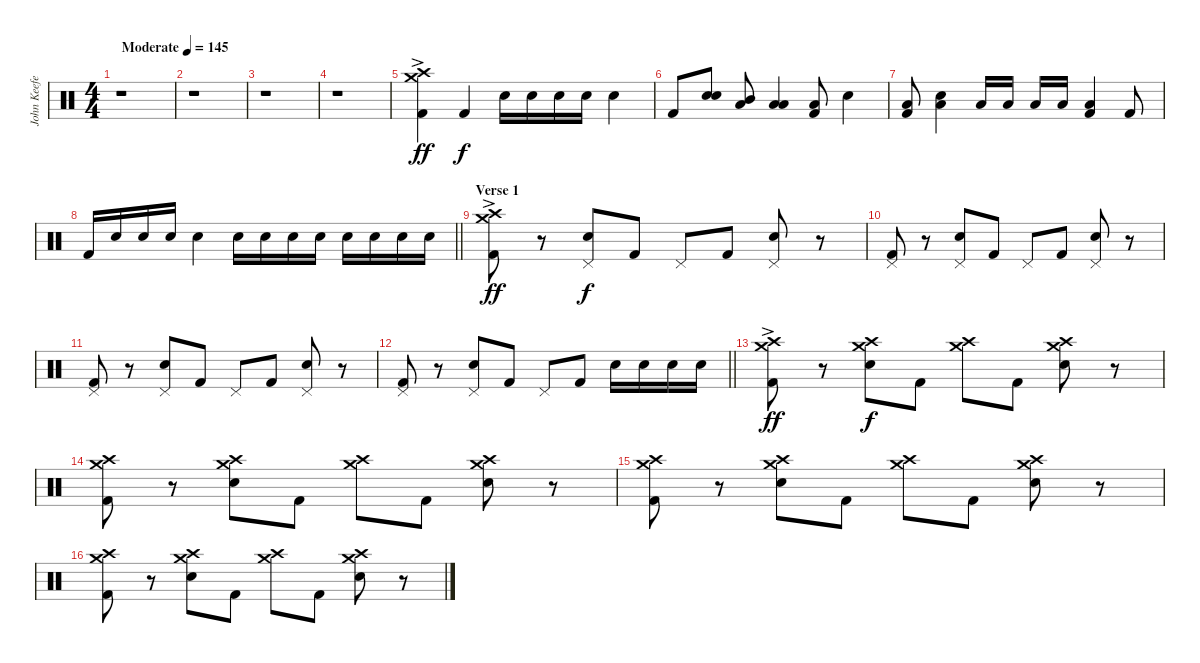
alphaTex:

\track ("John Keefe (Percussion)" "John Keefe") {instrument percussion}
\staff {score}
\articulation defaults
\ts (4 4)
\tempo (145 "Moderate")
\clef neutral
\ks c
r.1{dy ff} |
r.1 |
r.1 |
r.1 |
("Crash high (hit)"{ac} "Crash medium (hit)"{ac} "Kick (hit) 2"{ac}).4 "Kick (hit) 2".4{dy f} "Electric Snare (hit)".16 "Electric Snare (hit)".16 "Electric Snare (hit)".16 "Electric Snare (hit)".16 "Electric Snare (hit)".4 |
"Kick (hit) 2".8 ("Electric Snare (hit)" "Electric Snare (hit)").8 ("Low Tom (hit)" "Mid Tom (hit)").8 ("Low Tom (hit)" "Low Floor Tom (hit)").4 ("Low Floor Tom (hit)" "Kick (hit) 2").8 "Electric Snare (hit)".4 |
("Low Floor Tom (hit)" "Kick (hit) 2").8 ("Low Floor Tom (hit)" "Electric Snare (hit)").4 "Low Tom (hit)".16 "Low Tom (hit)".16 "Low Tom (hit)".16 "Low Tom (hit)".16 ("Low Floor Tom (hit)" "Kick (hit) 2").4 "Kick (hit) 2".8 |
\barLineRight lightlight "Kick (hit) 2".16 "Electric Snare (hit)".16 "Electric Snare (hit)".16 "Electric Snare (hit)".16 "Electric Snare (hit)".4 "Electric Snare (hit)".16 "Electric Snare (hit)".16 "Electric Snare (hit)".16 "Electric Snare (hit)".16 "Electric Snare (hit)".16 "Electric Snare (hit)".16 "Electric Snare (hit)".16 "Electric Snare (hit)".16
|
\section ("" "Verse 1")
("Crash high (hit)"{ac} "Crash medium (hit)"{ac} "Kick (hit) 2"{ac}).8{dy ff} r.8 ("Pedal Hi-Hat (hit)" "Electric Snare (hit)").8{dy f} "Kick (hit) 2".8 "Pedal Hi-Hat (hit)".8 "Kick (hit) 2".8 ("Pedal Hi-Hat (hit)" "Electric Snare (hit)").8 r.8 |
("Pedal Hi-Hat (hit)" "Kick (hit) 2").8 r.8 ("Pedal Hi-Hat (hit)" "Electric Snare (hit)").8 "Kick (hit) 2".8 "Pedal Hi-Hat (hit)".8 "Kick (hit) 2".8 ("Pedal Hi-Hat (hit)" "Electric Snare (hit)").8 r.8 |
("Pedal Hi-Hat (hit)" "Kick (hit) 2").8 r.8 ("Pedal Hi-Hat (hit)" "Electric Snare (hit)").8 "Kick (hit) 2".8 "Pedal Hi-Hat (hit)".8 "Kick (hit) 2".8 ("Pedal Hi-Hat (hit)" "Electric Snare (hit)").8 r.8 |
\barLineRight lightlight
("Pedal Hi-Hat (hit)" "Kick (hit) 2").8 r.8 ("Pedal Hi-Hat (hit)" "Electric Snare (hit)").8 "Kick (hit) 2".8 "Pedal Hi-Hat (hit)".8 "Kick (hit) 2".8 "Electric Snare (hit)".16 "Electric Snare (hit)".16 "Electric Snare (hit)".16 "Electric Snare (hit)".16 |
("Crash high (hit)"{ac} "Crash medium (hit)"{ac} "Kick (hit) 2").8{dy ff} r.8 ("Crash high (hit)" "Crash medium (hit)" "Electric Snare (hit)").8{dy f} "Kick (hit) 2".8 ("Crash high (hit)" "Crash medium (hit)").8 "Kick (hit) 2".8 ("Crash high (hit)" "Crash medium (hit)" "Electric Snare (hit)").8 r.8 |
("Crash high (hit)" "Crash medium (hit)" "Kick (hit) 2").8 r.8 ("Crash high (hit)" "Crash medium (hit)" "Electric Snare (hit)").8 "Kick (hit) 2".8 ("Crash high (hit)" "Crash medium (hit)").8 "Kick (hit) 2".8 ("Crash high (hit)" "Crash medium (hit)" "Electric Snare (hit)").8 r.8 |
("Crash high (hit)" "Crash medium (hit)" "Kick (hit) 2").8 r.8 ("Crash high (hit)" "Crash medium (hit)" "Electric Snare (hit)").8 "Kick (hit) 2".8 ("Crash high (hit)" "Crash medium (hit)").8 "Kick (hit) 2".8 ("Crash high (hit)" "Crash medium (hit)" "Electric Snare (hit)").8 r.8 |
("Crash high (hit)" "Crash medium (hit)" "Kick (hit) 2").8 r.8 ("Crash high (hit)" "Crash medium (hit)" "Electric Snare (hit)").8 "Kick (hit) 2".8 ("Crash high (hit)" "Crash medium (hit)").8 "Kick (hit) 2".8 ("Crash high (hit)" "Crash medium (hit)" "Electric Snare (hit)").8 r.8
